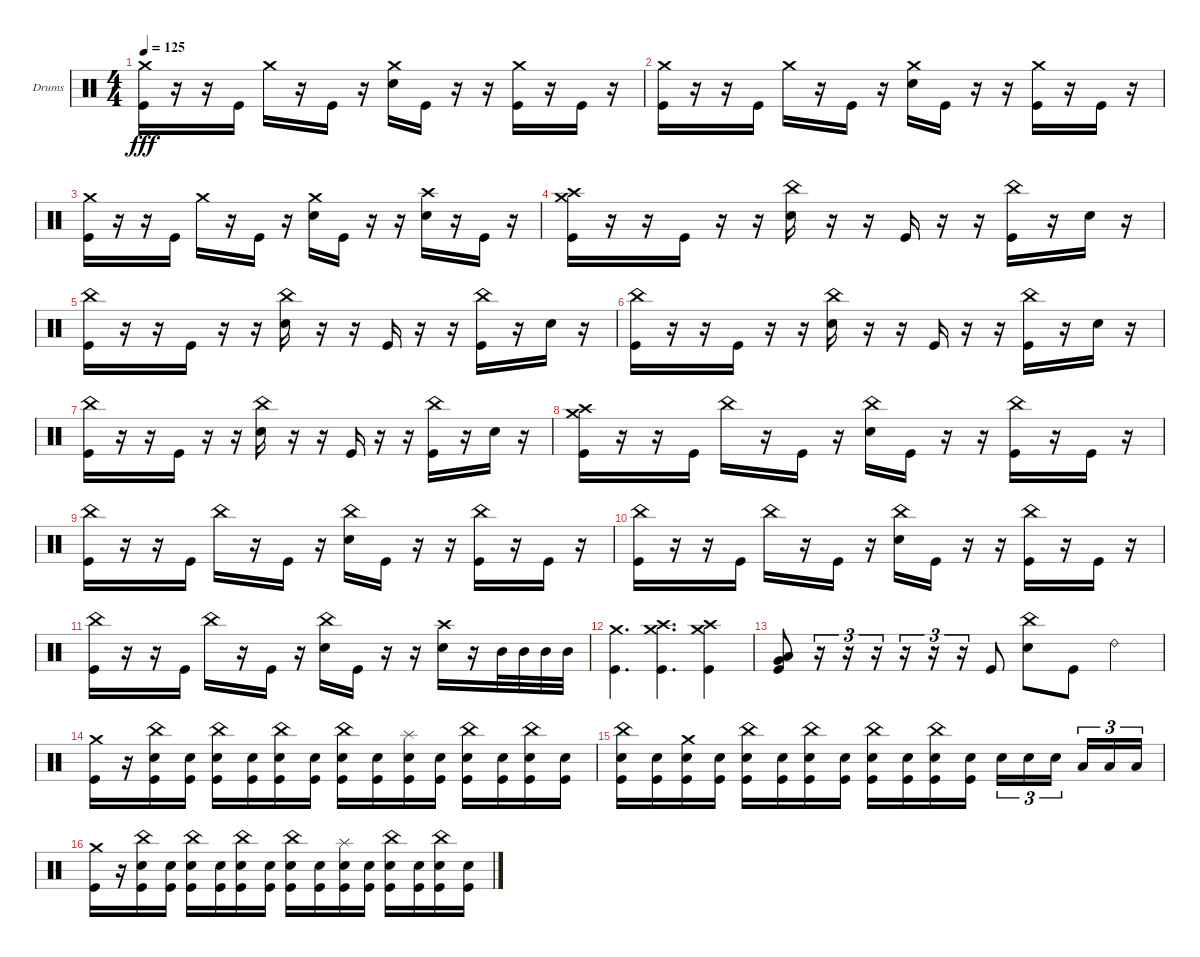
\bracketExtendMode groupsimilarinstruments
\firstSystemTrackNameOrientation horizontal
\otherSystemsTrackNameOrientation horizontal
\track ("Drumkit" "Drums") {instrument percussion}
\staff {score}
\articulation defaults
\ts (4 4)
\tempo 125
\clef neutral
\ks c
("Kick (hit)" "Crash medium (hit)").16{dy fff} r.16 r.16 "Kick (hit)".16 "Crash medium (hit)".16 r.16 "Kick (hit)".16 r.16 ("Snare (hit) 2" "Crash medium (hit)").16 "Kick (hit)".16 r.16 r.16 ("Kick (hit)" "Crash medium (hit)").16 r.16 "Kick (hit)".16 r.16 |
("Kick (hit)" "Crash medium (hit)").16 r.16 r.16 "Kick (hit)".16 "Crash medium (hit)".16 r.16 "Kick (hit)".16 r.16 ("Snare (hit) 2" "Crash medium (hit)").16 "Kick (hit)".16 r.16 r.16 ("Kick (hit)" "Crash medium (hit)").16 r.16 "Kick (hit)".16 r.16 |
("Kick (hit)" "Crash medium (hit)").16 r.16 r.16 "Kick (hit)".16 "Crash medium (hit)".16 r.16 "Kick (hit)".16 r.16 ("Snare (hit) 2" "Crash medium (hit)").16 "Kick (hit)".16 r.16 r.16 ("Snare (hit) 2" "Crash high (hit)").16 r.16 "Kick (hit)".16 r.16 |
("Crash high (hit)" "Crash medium (hit)" "Kick (hit)").16 r.16 r.16 "Kick (hit)".16 r.16 r.16 ("Snare (hit) 2" "China (hit)").16 r.16 r.16 "Kick (hit)".16 r.16 r.16 ("Kick (hit)" "China (hit)").16 r.16 "Snare (hit) 2".16 r.16 |
("Kick (hit)" "China (hit)").16 r.16 r.16 "Kick (hit)".16 r.16 r.16 ("Snare (hit) 2" "China (hit)").16 r.16 r.16 "Kick (hit)".16 r.16 r.16 ("Kick (hit)" "China (hit)").16 r.16 "Snare (hit) 2".16 r.16 |
("Kick (hit)" "China (hit)").16 r.16 r.16 "Kick (hit)".16 r.16 r.16 ("Snare (hit) 2" "China (hit)").16 r.16 r.16 "Kick (hit)".16 r.16 r.16 ("Kick (hit)" "China (hit)").16 r.16 "Snare (hit) 2".16 r.16 |
("Kick (hit)" "China (hit)").16 r.16 r.16 "Kick (hit)".16 r.16 r.16 ("Snare (hit) 2" "China (hit)").16 r.16 r.16 "Kick (hit)".16 r.16 r.16 ("Kick (hit)" "China (hit)").16 r.16 "Snare (hit) 2".16 r.16 |
("Crash high (hit)" "Crash medium (hit)" "Kick (hit)").16 r.16 r.16 "Kick (hit)".16 "China (hit)".16 r.16 "Kick (hit)".16 r.16 ("China (hit)" "Snare (hit) 2").16 "Kick (hit)".16 r.16 r.16 ("Kick (hit)" "China (hit)").16 r.16 "Kick (hit)".16 r.16 |
("Kick (hit)" "China (hit)").16 r.16 r.16 "Kick (hit)".16 "China (hit)".16 r.16 "Kick (hit)".16 r.16 ("China (hit)" "Snare (hit) 2").16 "Kick (hit)".16 r.16 r.16 ("Kick (hit)" "China (hit)").16 r.16 "Kick (hit)".16 r.16 |
("Kick (hit)" "China (hit)").16 r.16 r.16 "Kick (hit)".16 "China (hit)".16 r.16 "Kick (hit)".16 r.16 ("China (hit)" "Snare (hit) 2").16 "Kick (hit)".16 r.16 r.16 ("Kick (hit)" "China (hit)").16 r.16 "Kick (hit)".16 r.16 |
("Kick (hit)" "China (hit)").16 r.16 r.16 "Kick (hit)".16 "China (hit)".16 r.16 "Kick (hit)".16 r.16 ("China (hit)" "Snare (hit) 2").16 "Kick (hit)".16 r.16 r.16 ("Snare (hit) 2" "Crash high (hit)").16 r.16 "Mid Tom (hit)".32 "Mid Tom (hit)".32 "Mid Tom (hit)".32 "Mid Tom (hit)".32 |
("Kick (hit)" "Crash medium (hit)").4{d} ("Kick (hit)" "Crash high (hit)" "Crash medium (hit)").4{d} ("Kick (hit)" "Crash medium (hit)" "Crash high (hit)").4 |
("Very Low Tom (hit)" "Low Tom (hit)" "Kick (hit)").8 r.16{tu (3 2)} r.16{tu (3 2)} r.16{tu (3 2)} r.16{tu (3 2)} r.16{tu (3 2)} r.16{tu (3 2)} "Kick (hit)".8 ("Snare (hit) 2" "China (hit)").8 "Kick (hit)".8 "Ride (bell) 2".4 |
("Crash medium (hit)" "Kick (hit)").16 r.16 ("Snare (hit) 2" "Kick (hit)" "China (hit)").16 ("Snare (hit) 2" "Kick (hit)").16 ("Snare (hit) 2" "Kick (hit)" "China (hit)").16 ("Snare (hit) 2" "Kick (hit)").16 ("Snare (hit) 2" "Kick (hit)" "China (hit)").16 ("Snare (hit) 2" "Kick (hit)").16 ("Snare (hit) 2" "Kick (hit)" "China (hit)").16 ("Snare (hit) 2" "Kick (hit)").16 ("Snare (hit) 2" "Kick (hit)" "Splash (hit)").16 ("Snare (hit) 2" "Kick (hit)").16 ("Snare (hit) 2" "Kick (hit)" "China (hit)").16 ("Snare (hit) 2" "Kick (hit)").16 ("Snare (hit) 2" "Kick (hit)" "China (hit)").16 ("Snare (hit) 2" "Kick (hit)").16 |
("Snare (hit) 2" "Kick (hit)" "China (hit)").16 ("Snare (hit) 2" "Kick (hit)").16 ("Snare (hit) 2" "Kick (hit)" "Crash medium (hit)").16 ("Snare (hit) 2" "Kick (hit)").16 ("Snare (hit) 2" "Kick (hit)" "China (hit)").16 ("Snare (hit) 2" "Kick (hit)").16 ("Snare (hit) 2" "Kick (hit)" "China (hit)").16 ("Snare (hit) 2" "Kick (hit)").16 ("Snare (hit) 2" "Kick (hit)" "China (hit)").16 ("Snare (hit) 2" "Kick (hit)").16 ("Snare (hit) 2" "Kick (hit)" "China (hit)").16 ("Snare (hit) 2" "Kick (hit)").16 "Snare (hit) 2".16{tu (3 2)} "Snare (hit) 2".16{tu (3 2)} "Snare (hit) 2".16{tu (3 2)} "Low Tom (hit)".16{tu (3 2)} "Low Tom (hit)".16{tu (3 2)} "Low Tom (hit)".16{tu (3 2)} |
("Crash medium (hit)" "Kick (hit)").16 r.16 ("Snare (hit) 2" "Kick (hit)" "China (hit)").16 ("Snare (hit) 2" "Kick (hit)").16 ("Snare (hit) 2" "Kick (hit)" "China (hit)").16 ("Snare (hit) 2" "Kick (hit)").16 ("Snare (hit) 2" "Kick (hit)" "China (hit)").16 ("Snare (hit) 2" "Kick (hit)").16 ("Snare (hit) 2" "Kick (hit)" "China (hit)").16 ("Snare (hit) 2" "Kick (hit)").16 ("Snare (hit) 2" "Kick (hit)" "Splash (hit)").16 ("Snare (hit) 2" "Kick (hit)").16 ("Snare (hit) 2" "Kick (hit)" "China (hit)").16 ("Snare (hit) 2" "Kick (hit)").16 ("Snare (hit) 2" "Kick (hit)" "China (hit)").16 ("Snare (hit) 2" "Kick (hit)").16
